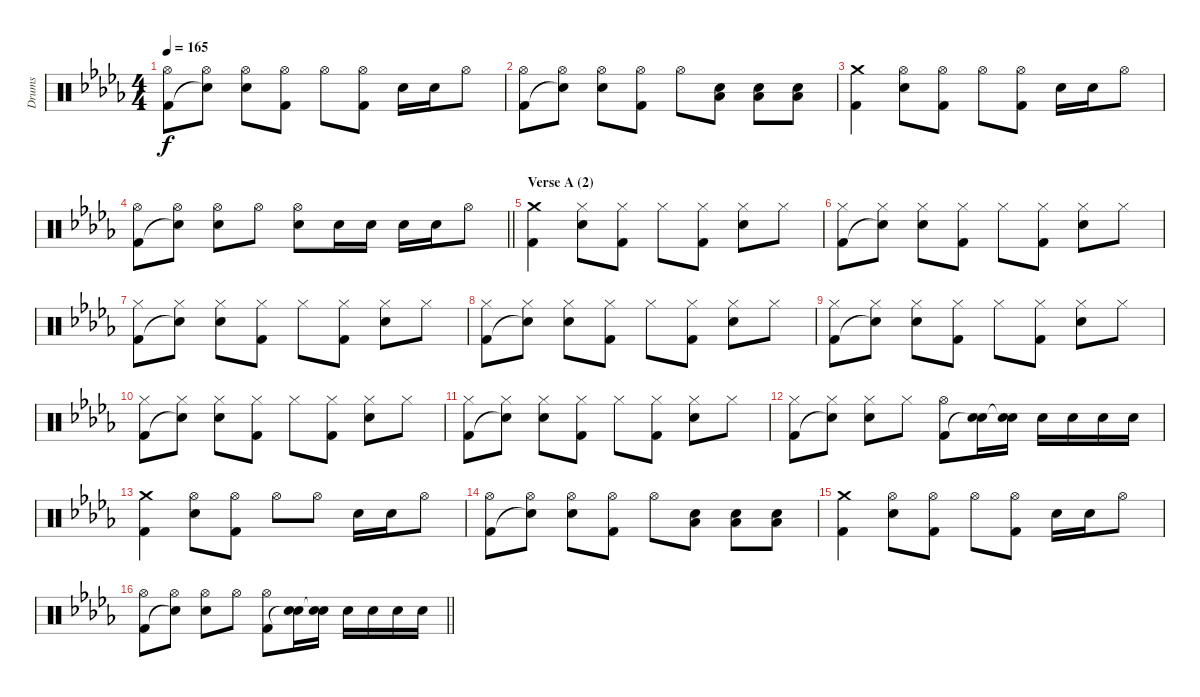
\track ("Drums" "Drums") {instrument percussion}
\staff {score}
\articulation defaults
\ts (4 4)
\tempo 165
\clef neutral
\ks bbminor
("Hi-Hat (open)" "Kick (hit) 2").8{dy f} ("Hi-Hat (open)" "Snare (hit)"{t}).8 ("Hi-Hat (open)" "Electric Snare (hit)").8 ("Hi-Hat (open)" "Kick (hit) 2").8 "Hi-Hat (open)".8 ("Hi-Hat (open)" "Kick (hit) 2").8 "Electric Snare (hit)".16 "Electric Snare (hit)".16 "Hi-Hat (open)".8 |
("Hi-Hat (open)" "Kick (hit) 2").8 ("Hi-Hat (open)" "Snare (hit)"{t}).8 ("Hi-Hat (open)" "Electric Snare (hit)").8 ("Hi-Hat (open)" "Kick (hit) 2").8 "Hi-Hat (open)".8 ("Electric Snare (hit)" "Low Floor Tom (hit)").8 ("Electric Snare (hit)" "Low Floor Tom (hit)").8 ("Electric Snare (hit)" "Low Floor Tom (hit)").8 |
("Crash medium (hit)" "Kick (hit) 2").4 ("Hi-Hat (open)" "Electric Snare (hit)").8 ("Hi-Hat (open)" "Kick (hit) 2").8 "Hi-Hat (open)".8 ("Hi-Hat (open)" "Kick (hit) 2").8 "Electric Snare (hit)".16 "Electric Snare (hit)".16 "Hi-Hat (open)".8 |
\barLineRight lightlight
("Hi-Hat (open)" "Kick (hit) 2").8 ("Hi-Hat (open)" "Snare (hit)"{t}).8 ("Hi-Hat (open)" "Electric Snare (hit)").8 "Hi-Hat (open)".8 ("Hi-Hat (open)" "Electric Snare (hit)").8 "Electric Snare (hit)".16 "Electric Snare (hit)".16 "Electric Snare (hit)".16 "Electric Snare (hit)".16 "Hi-Hat (open)".8 |
\section ("" "Verse A (2)")
("Crash medium (hit)" "Kick (hit) 2").4 ("Hi-Hat (closed)" "Electric Snare (hit)").8 ("Hi-Hat (closed)" "Kick (hit) 2").8 "Hi-Hat (closed)".8 ("Hi-Hat (closed)" "Kick (hit) 2").8 ("Hi-Hat (closed)" "Electric Snare (hit)").8 "Hi-Hat (closed)".8 |
("Hi-Hat (closed)" "Kick (hit) 2").8 ("Hi-Hat (closed)" "Snare (hit)"{t}).8 ("Hi-Hat (closed)" "Electric Snare (hit)").8 ("Hi-Hat (closed)" "Kick (hit) 2").8 "Hi-Hat (closed)".8 ("Hi-Hat (closed)" "Kick (hit) 2").8 ("Hi-Hat (closed)" "Electric Snare (hit)").8 "Hi-Hat (closed)".8 |
("Hi-Hat (closed)" "Kick (hit) 2").8 ("Hi-Hat (closed)" "Snare (hit)"{t}).8 ("Hi-Hat (closed)" "Electric Snare (hit)").8 ("Hi-Hat (closed)" "Kick (hit) 2").8 "Hi-Hat (closed)".8 ("Hi-Hat (closed)" "Kick (hit) 2").8 ("Hi-Hat (closed)" "Electric Snare (hit)").8 "Hi-Hat (closed)".8 |
("Hi-Hat (closed)" "Kick (hit) 2").8 ("Hi-Hat (closed)" "Snare (hit)"{t}).8 ("Hi-Hat (closed)" "Electric Snare (hit)").8 ("Hi-Hat (closed)" "Kick (hit) 2").8 "Hi-Hat (closed)".8 ("Hi-Hat (closed)" "Kick (hit) 2").8 ("Hi-Hat (closed)" "Electric Snare (hit)").8 "Hi-Hat (closed)".8 |
("Hi-Hat (closed)" "Kick (hit) 2").8 ("Hi-Hat (closed)" "Snare (hit)"{t}).8 ("Hi-Hat (closed)" "Electric Snare (hit)").8 ("Hi-Hat (closed)" "Kick (hit) 2").8 "Hi-Hat (closed)".8 ("Hi-Hat (closed)" "Kick (hit) 2").8 ("Hi-Hat (closed)" "Electric Snare (hit)").8 "Hi-Hat (closed)".8 |
("Hi-Hat (closed)" "Kick (hit) 2").8 ("Hi-Hat (closed)" "Snare (hit)"{t}).8 ("Hi-Hat (closed)" "Electric Snare (hit)").8 ("Hi-Hat (closed)" "Kick (hit) 2").8 "Hi-Hat (closed)".8 ("Hi-Hat (closed)" "Kick (hit) 2").8 ("Hi-Hat (closed)" "Electric Snare (hit)").8 "Hi-Hat (closed)".8 |
("Hi-Hat (closed)" "Kick (hit) 2").8 ("Hi-Hat (closed)" "Snare (hit)"{t}).8 ("Hi-Hat (closed)" "Electric Snare (hit)").8 ("Hi-Hat (closed)" "Kick (hit) 2").8 "Hi-Hat (closed)".8 ("Hi-Hat (closed)" "Kick (hit) 2").8 ("Hi-Hat (closed)" "Electric Snare (hit)").8 "Hi-Hat (closed)".8 |
("Hi-Hat (closed)" "Kick (hit) 2").8 ("Hi-Hat (closed)" "Snare (hit)"{t}).8 ("Hi-Hat (closed)" "Electric Snare (hit)").8 "Hi-Hat (closed)".8 ("Hi-Hat (open)" "Kick (hit) 2").8 ("Electric Snare (hit)" "Snare (hit)"{t}).16 ("Electric Snare (hit)" "Snare (hit)"{t}).16 "Electric Snare (hit)".16 "Electric Snare (hit)".16 "Electric Snare (hit)".16 "Electric Snare (hit)".16 |
("Crash medium (hit)" "Kick (hit) 2").4 ("Hi-Hat (open)" "Electric Snare (hit)").8 ("Hi-Hat (open)" "Kick (hit) 2").8 "Hi-Hat (open)".8 "Hi-Hat (open)".8 "Electric Snare (hit)".16 "Electric Snare (hit)".16 "Hi-Hat (open)".8 |
("Hi-Hat (open)" "Kick (hit) 2").8 ("Hi-Hat (open)" "Snare (hit)"{t}).8 ("Hi-Hat (open)" "Electric Snare (hit)").8 ("Hi-Hat (open)" "Kick (hit) 2").8 "Hi-Hat (open)".8 ("Electric Snare (hit)" "Low Floor Tom (hit)").8 ("Electric Snare (hit)" "Low Floor Tom (hit)").8 ("Electric Snare (hit)" "Low Floor Tom (hit)").8 |
("Crash medium (hit)" "Kick (hit) 2").4 ("Hi-Hat (open)" "Electric Snare (hit)").8 ("Hi-Hat (open)" "Kick (hit) 2").8 "Hi-Hat (open)".8 ("Hi-Hat (open)" "Kick (hit) 2").8 "Electric Snare (hit)".16 "Electric Snare (hit)".16 "Hi-Hat (open)".8 |
\barLineRight lightlight
("Hi-Hat (open)" "Kick (hit) 2").8 ("Hi-Hat (open)" "Snare (hit)"{t}).8 ("Hi-Hat (open)" "Electric Snare (hit)").8 "Hi-Hat (open)".8 ("Hi-Hat (open)" "Kick (hit) 2").8 ("Electric Snare (hit)" "Snare (hit)"{t}).16 ("Electric Snare (hit)" "Snare (hit)"{t}).16 "Electric Snare (hit)".16 "Electric Snare (hit)".16 "Electric Snare (hit)".16 "Electric Snare (hit)".16
